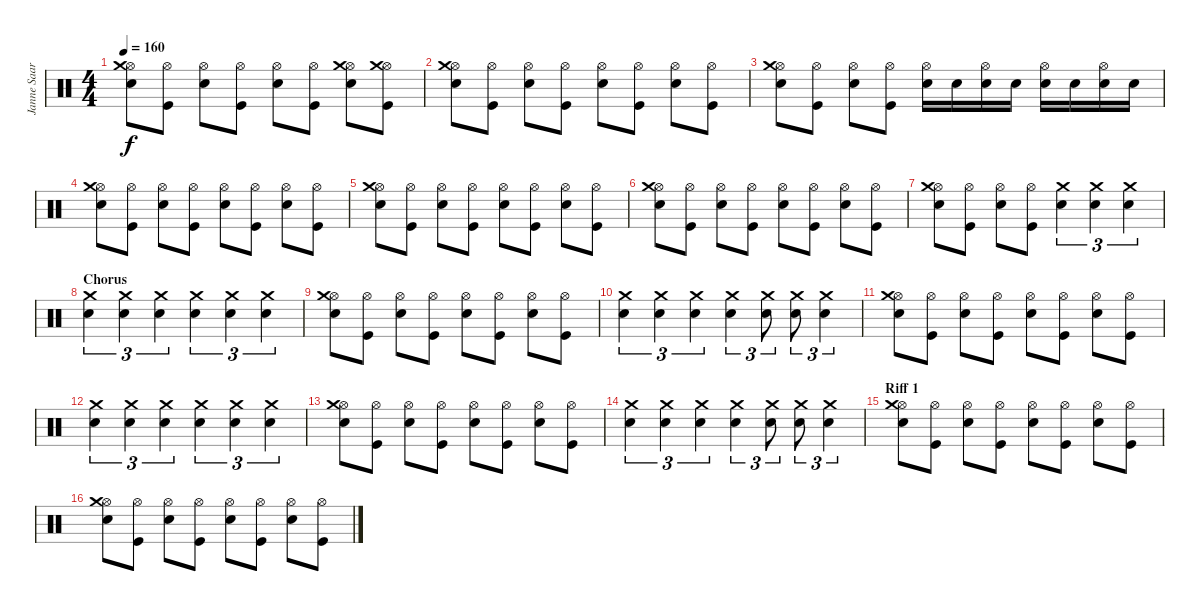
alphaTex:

\track ("Janne Saarenpaa" "Janne Saar") {instrument percussion}
\staff {score}
\articulation defaults
\ts (4 4)
\tempo 160
\clef neutral
\ks c
("Hi-Hat (open)" "Snare (hit) 2" "Crash medium (hit)").8{dy f} ("Hi-Hat (open)" "Kick (hit)").8 ("Hi-Hat (open)" "Snare (hit) 2").8 ("Hi-Hat (open)" "Kick (hit)").8 ("Hi-Hat (open)" "Snare (hit) 2").8 ("Hi-Hat (open)" "Kick (hit)").8 ("Hi-Hat (open)" "Snare (hit) 2" "Crash medium (hit)").8 ("Hi-Hat (open)" "Kick (hit)" "Crash medium (hit)").8 |
("Hi-Hat (open)" "Snare (hit) 2" "Crash medium (hit)").8 ("Hi-Hat (open)" "Kick (hit)").8 ("Hi-Hat (open)" "Snare (hit) 2").8 ("Hi-Hat (open)" "Kick (hit)").8 ("Hi-Hat (open)" "Snare (hit) 2").8 ("Hi-Hat (open)" "Kick (hit)").8 ("Hi-Hat (open)" "Snare (hit) 2").8 ("Hi-Hat (open)" "Kick (hit)").8 |
("Hi-Hat (open)" "Snare (hit) 2" "Crash medium (hit)").8 ("Hi-Hat (open)" "Kick (hit)").8 ("Hi-Hat (open)" "Snare (hit) 2").8 ("Hi-Hat (open)" "Kick (hit)").8 ("Hi-Hat (open)" "Snare (hit) 2").16 "Snare (hit) 2".16 ("Hi-Hat (open)" "Snare (hit) 2").16 "Snare (hit) 2".16 ("Hi-Hat (open)" "Snare (hit) 2").16 "Snare (hit) 2".16 ("Hi-Hat (open)" "Snare (hit) 2").16 "Snare (hit) 2".16 |
("Hi-Hat (open)" "Snare (hit) 2" "Crash medium (hit)").8 ("Hi-Hat (open)" "Kick (hit)").8 ("Hi-Hat (open)" "Snare (hit) 2").8 ("Hi-Hat (open)" "Kick (hit)").8 ("Hi-Hat (open)" "Snare (hit) 2").8 ("Hi-Hat (open)" "Kick (hit)").8 ("Hi-Hat (open)" "Snare (hit) 2").8 ("Hi-Hat (open)" "Kick (hit)").8 |
("Hi-Hat (open)" "Snare (hit) 2" "Crash medium (hit)").8 ("Hi-Hat (open)" "Kick (hit)").8 ("Hi-Hat (open)" "Snare (hit) 2").8 ("Hi-Hat (open)" "Kick (hit)").8 ("Hi-Hat (open)" "Snare (hit) 2").8 ("Hi-Hat (open)" "Kick (hit)").8 ("Hi-Hat (open)" "Snare (hit) 2").8 ("Hi-Hat (open)" "Kick (hit)").8 |
("Hi-Hat (open)" "Snare (hit) 2" "Crash medium (hit)").8 ("Hi-Hat (open)" "Kick (hit)").8 ("Hi-Hat (open)" "Snare (hit) 2").8 ("Hi-Hat (open)" "Kick (hit)").8 ("Hi-Hat (open)" "Snare (hit) 2").8 ("Hi-Hat (open)" "Kick (hit)").8 ("Hi-Hat (open)" "Snare (hit) 2").8 ("Hi-Hat (open)" "Kick (hit)").8 |
("Hi-Hat (open)" "Snare (hit) 2" "Crash medium (hit)").8 ("Hi-Hat (open)" "Kick (hit)").8 ("Hi-Hat (open)" "Snare (hit) 2").8 ("Hi-Hat (open)" "Kick (hit)").8 ("Crash medium (hit)" "Snare (hit) 2").4{tu (3 2)} ("Crash medium (hit)" "Snare (hit) 2").4{tu (3 2)} ("Crash medium (hit)" "Snare (hit) 2").4{tu (3 2)} |
\section ("" "Chorus")
("Crash medium (hit)" "Snare (hit) 2").4{tu (3 2)} ("Crash medium (hit)" "Snare (hit) 2").4{tu (3 2)} ("Crash medium (hit)" "Snare (hit) 2").4{tu (3 2)} ("Crash medium (hit)" "Snare (hit) 2").4{tu (3 2)} ("Crash medium (hit)" "Snare (hit) 2").4{tu (3 2)} ("Crash medium (hit)" "Snare (hit) 2").4{tu (3 2)} |
("Hi-Hat (open)" "Snare (hit) 2" "Crash medium (hit)").8 ("Hi-Hat (open)" "Kick (hit)").8 ("Hi-Hat (open)" "Snare (hit) 2").8 ("Hi-Hat (open)" "Kick (hit)").8 ("Hi-Hat (open)" "Snare (hit) 2").8 ("Hi-Hat (open)" "Kick (hit)").8 ("Hi-Hat (open)" "Snare (hit) 2").8 ("Hi-Hat (open)" "Kick (hit)").8 |
("Crash medium (hit)" "Snare (hit) 2").4{tu (3 2)} ("Crash medium (hit)" "Snare (hit) 2").4{tu (3 2)} ("Crash medium (hit)" "Snare (hit) 2").4{tu (3 2)} ("Crash medium (hit)" "Snare (hit) 2").4{tu (3 2)} ("Crash medium (hit)" "Snare (hit) 2").8{tu (3 2)} ("Crash medium (hit)" "Snare (hit) 2").8{tu (3 2)} ("Crash medium (hit)" "Snare (hit) 2").4{tu (3 2)} |
("Hi-Hat (open)" "Snare (hit) 2" "Crash medium (hit)").8 ("Hi-Hat (open)" "Kick (hit)").8 ("Hi-Hat (open)" "Snare (hit) 2").8 ("Hi-Hat (open)" "Kick (hit)").8 ("Hi-Hat (open)" "Snare (hit) 2").8 ("Hi-Hat (open)" "Kick (hit)").8 ("Hi-Hat (open)" "Snare (hit) 2").8 ("Hi-Hat (open)" "Kick (hit)").8 |
("Crash medium (hit)" "Snare (hit) 2").4{tu (3 2)} ("Crash medium (hit)" "Snare (hit) 2").4{tu (3 2)} ("Crash medium (hit)" "Snare (hit) 2").4{tu (3 2)} ("Crash medium (hit)" "Snare (hit) 2").4{tu (3 2)} ("Crash medium (hit)" "Snare (hit) 2").4{tu (3 2)} ("Crash medium (hit)" "Snare (hit) 2").4{tu (3 2)} |
("Hi-Hat (open)" "Snare (hit) 2" "Crash medium (hit)").8 ("Hi-Hat (open)" "Kick (hit)").8 ("Hi-Hat (open)" "Snare (hit) 2").8 ("Hi-Hat (open)" "Kick (hit)").8 ("Hi-Hat (open)" "Snare (hit) 2").8 ("Hi-Hat (open)" "Kick (hit)").8 ("Hi-Hat (open)" "Snare (hit) 2").8 ("Hi-Hat (open)" "Kick (hit)").8 |
("Crash medium (hit)" "Snare (hit) 2").4{tu (3 2)} ("Crash medium (hit)" "Snare (hit) 2").4{tu (3 2)} ("Crash medium (hit)" "Snare (hit) 2").4{tu (3 2)} ("Crash medium (hit)" "Snare (hit) 2").4{tu (3 2)} ("Crash medium (hit)" "Snare (hit) 2").8{tu (3 2)} ("Crash medium (hit)" "Snare (hit) 2").8{tu (3 2)} ("Crash medium (hit)" "Snare (hit) 2").4{tu (3 2)} |
\section ("" "Riff 1")
("Hi-Hat (open)" "Snare (hit) 2" "Crash medium (hit)").8 ("Hi-Hat (open)" "Kick (hit)").8 ("Hi-Hat (open)" "Snare (hit) 2").8 ("Hi-Hat (open)" "Kick (hit)").8 ("Hi-Hat (open)" "Snare (hit) 2").8 ("Hi-Hat (open)" "Kick (hit)").8 ("Hi-Hat (open)" "Snare (hit) 2").8 ("Hi-Hat (open)" "Kick (hit)").8 |
("Hi-Hat (open)" "Snare (hit) 2" "Crash medium (hit)").8 ("Hi-Hat (open)" "Kick (hit)").8 ("Hi-Hat (open)" "Snare (hit) 2").8 ("Hi-Hat (open)" "Kick (hit)").8 ("Hi-Hat (open)" "Snare (hit) 2").8 ("Hi-Hat (open)" "Kick (hit)").8 ("Hi-Hat (open)" "Snare (hit) 2").8 ("Hi-Hat (open)" "Kick (hit)").8
